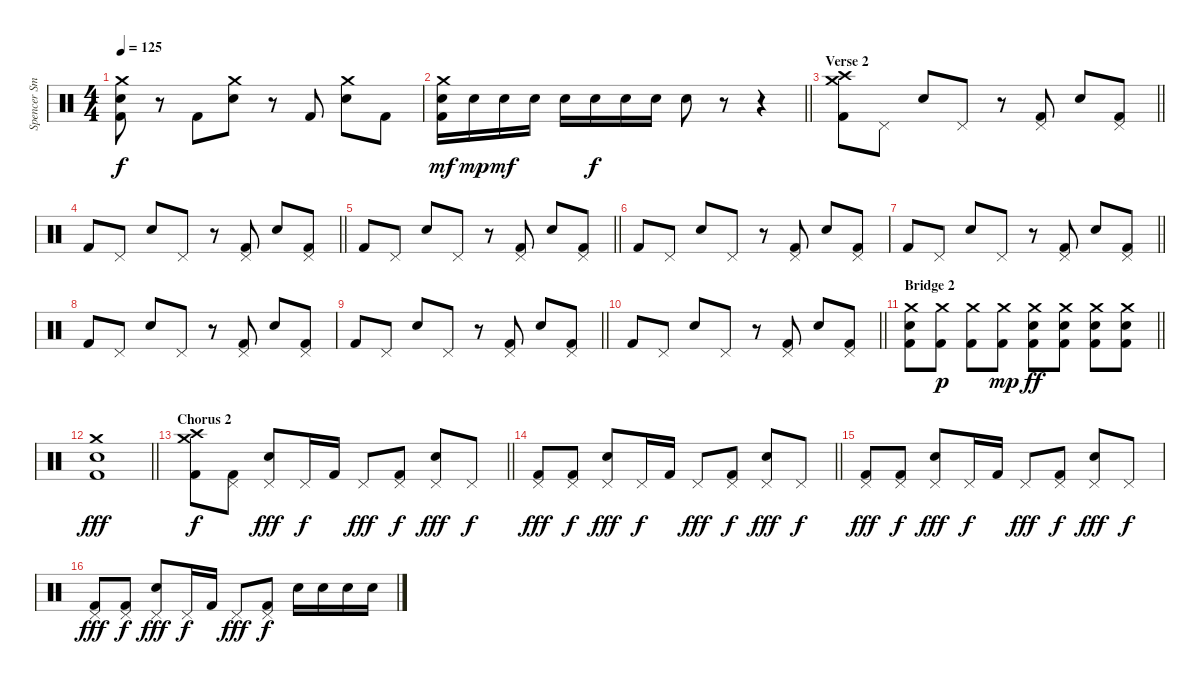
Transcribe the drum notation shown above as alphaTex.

\track ("Spencer Smith (Drums)" "Spencer Sm") {instrument percussion}
\staff {score}
\articulation defaults
\ts (4 4)
\tempo 125
\clef neutral
\ks c
("Crash medium (hit)" "Electric Snare (hit)" "Kick (hit) 2").8{dy f} r.8 "Kick (hit) 2".8 ("Crash medium (hit)" "Electric Snare (hit)").8 r.8 "Kick (hit) 2".8 ("Crash medium (hit)" "Electric Snare (hit)").8 "Kick (hit) 2".8 |
\barLineRight lightlight
("Crash medium (hit)" "Electric Snare (hit)" "Kick (hit) 2").16{dy mf} "Electric Snare (hit)".16{dy mp} "Electric Snare (hit)".16{dy mf} "Electric Snare (hit)".16 "Electric Snare (hit)".16 "Electric Snare (hit)".16{dy f} "Electric Snare (hit)".16 "Electric Snare (hit)".16 "Electric Snare (hit)".8 r.8 r.4 |
\section ("" "Verse 2")
\barLineRight lightlight
("Crash high (hit)" "Crash medium (hit)" "Kick (hit) 2").8 "Pedal Hi-Hat (hit)".8 "Electric Snare (hit)".8 "Pedal Hi-Hat (hit)".8 r.8 ("Pedal Hi-Hat (hit)" "Kick (hit) 2").8 "Electric Snare (hit)".8 ("Pedal Hi-Hat (hit)" "Kick (hit) 2").8 |
\barLineRight lightlight "Kick (hit) 2".8 "Pedal Hi-Hat (hit)".8 "Electric Snare (hit)".8 "Pedal Hi-Hat (hit)".8
r.8 ("Pedal Hi-Hat (hit)" "Kick (hit) 2").8 "Electric Snare (hit)".8 ("Pedal Hi-Hat (hit)" "Kick (hit) 2").8 |
\barLineRight lightlight "Kick (hit) 2".8 "Pedal Hi-Hat (hit)".8 "Electric Snare (hit)".8 "Pedal Hi-Hat (hit)".8
r.8 ("Pedal Hi-Hat (hit)" "Kick (hit) 2").8 "Electric Snare (hit)".8 ("Pedal Hi-Hat (hit)" "Kick (hit) 2").8 |
"Kick (hit) 2".8 "Pedal Hi-Hat (hit)".8 "Electric Snare (hit)".8 "Pedal Hi-Hat (hit)".8 r.8 ("Pedal Hi-Hat (hit)" "Kick (hit) 2").8 "Electric Snare (hit)".8 ("Pedal Hi-Hat (hit)" "Kick (hit) 2").8 |
\barLineRight lightlight "Kick (hit) 2".8 "Pedal Hi-Hat (hit)".8 "Electric Snare (hit)".8 "Pedal Hi-Hat (hit)".8
r.8 ("Pedal Hi-Hat (hit)" "Kick (hit) 2").8 "Electric Snare (hit)".8 ("Pedal Hi-Hat (hit)" "Kick (hit) 2").8 |
"Kick (hit) 2".8 "Pedal Hi-Hat (hit)".8 "Electric Snare (hit)".8 "Pedal Hi-Hat (hit)".8 r.8 ("Pedal Hi-Hat (hit)" "Kick (hit) 2").8 "Electric Snare (hit)".8 ("Pedal Hi-Hat (hit)" "Kick (hit) 2").8 |
\barLineRight lightlight "Kick (hit) 2".8 "Pedal Hi-Hat (hit)".8 "Electric Snare (hit)".8 "Pedal Hi-Hat (hit)".8
r.8 ("Pedal Hi-Hat (hit)" "Kick (hit) 2").8 "Electric Snare (hit)".8 ("Pedal Hi-Hat (hit)" "Kick (hit) 2").8 |
\barLineRight lightlight "Kick (hit) 2".8 "Pedal Hi-Hat (hit)".8 "Electric Snare (hit)".8 "Pedal Hi-Hat (hit)".8
r.8 ("Pedal Hi-Hat (hit)" "Kick (hit) 2").8 "Electric Snare (hit)".8 ("Pedal Hi-Hat (hit)" "Kick (hit) 2").8 |
\section ("" "Bridge 2")
\barLineRight lightlight
("Crash medium (hit)" "Electric Snare (hit)" "Kick (hit) 2").8 ("Crash medium (hit)" "Kick (hit) 2").8{dy p} ("Crash medium (hit)" "Kick (hit) 2").8 ("Crash medium (hit)" "Kick (hit) 2").8{dy mp} ("Crash medium (hit)" "Electric Snare (hit)" "Kick (hit) 2").8{dy ff} ("Crash medium (hit)" "Electric Snare (hit)" "Kick (hit) 2").8 ("Crash medium (hit)" "Electric Snare (hit)" "Kick (hit) 2").8 ("Crash medium (hit)" "Electric Snare (hit)" "Kick (hit) 2").8 |
\barLineRight lightlight
("Crash medium (hit)" "Electric Snare (hit)" "Kick (hit) 2").1{dy fff} |
\section ("" "Chorus 2")
\barLineRight lightlight
("Crash high (hit)" "Crash medium (hit)" "Kick (hit) 2").8{dy f} ("Pedal Hi-Hat (hit)" "Kick (hit) 2").8 ("Pedal Hi-Hat (hit)" "Electric Snare (hit)").8{dy fff} "Pedal Hi-Hat (hit)".16{dy f} "Kick (hit) 2".16 "Pedal Hi-Hat (hit)".8{dy fff} ("Pedal Hi-Hat (hit)" "Kick (hit) 2").8{dy f} ("Pedal Hi-Hat (hit)" "Electric Snare (hit)").8{dy fff} "Pedal Hi-Hat (hit)".8{dy f} |
\barLineRight lightlight
("Pedal Hi-Hat (hit)" "Kick (hit) 2").8{dy fff} ("Pedal Hi-Hat (hit)" "Kick (hit) 2").8{dy f} ("Pedal Hi-Hat (hit)" "Electric Snare (hit)").8{dy fff} "Pedal Hi-Hat (hit)".16{dy f} "Kick (hit) 2".16 "Pedal Hi-Hat (hit)".8{dy fff} ("Pedal Hi-Hat (hit)" "Kick (hit) 2").8{dy f} ("Pedal Hi-Hat (hit)" "Electric Snare (hit)").8{dy fff} "Pedal Hi-Hat (hit)".8{dy f} |
("Pedal Hi-Hat (hit)" "Kick (hit) 2").8{dy fff} ("Pedal Hi-Hat (hit)" "Kick (hit) 2").8{dy f} ("Pedal Hi-Hat (hit)" "Electric Snare (hit)").8{dy fff} "Pedal Hi-Hat (hit)".16{dy f} "Kick (hit) 2".16 "Pedal Hi-Hat (hit)".8{dy fff} ("Pedal Hi-Hat (hit)" "Kick (hit) 2").8{dy f} ("Pedal Hi-Hat (hit)" "Electric Snare (hit)").8{dy fff} "Pedal Hi-Hat (hit)".8{dy f} |
("Pedal Hi-Hat (hit)" "Kick (hit) 2").8{dy fff} ("Pedal Hi-Hat (hit)" "Kick (hit) 2").8{dy f} ("Pedal Hi-Hat (hit)" "Electric Snare (hit)").8{dy fff} "Pedal Hi-Hat (hit)".16{dy f} "Kick (hit) 2".16 "Pedal Hi-Hat (hit)".8{dy fff} ("Pedal Hi-Hat (hit)" "Kick (hit) 2").8{dy f} "Electric Snare (hit)".16 "Electric Snare (hit)".16 "Electric Snare (hit)".16 "Electric Snare (hit)".16
